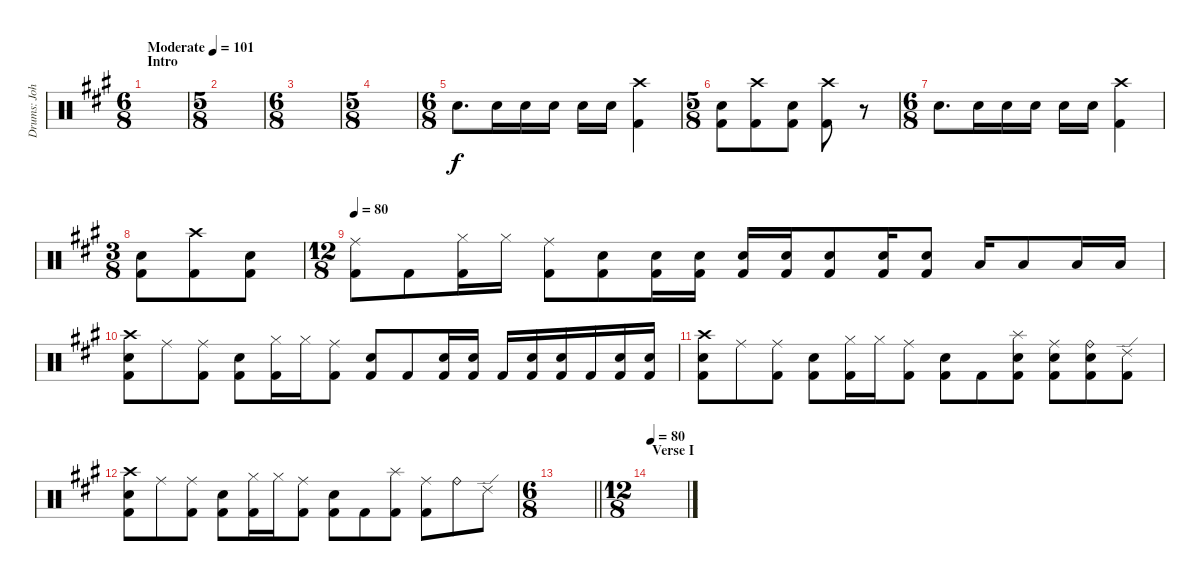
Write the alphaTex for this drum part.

\track ("Drums: John" "Drums: Joh") {instrument percussion}
\staff {score}
\articulation defaults
\ts (6 8)
\section ("" "Intro")
\tempo (101 "Moderate")
\tempo 85
\tempo (101 "Moderate")
\clef neutral
\ks a
|
\ts (5 8)
|
\ts (6 8)
|
\ts (5 8)
|
\ts (6 8)
"Electric Snare (hit)".8{d} "Electric Snare (hit)".16 "Electric Snare (hit)".16 "Electric Snare (hit)".16 "Electric Snare (hit)".16 "Electric Snare (hit)".16 ("Crash high (hit)" "Kick (hit) 2").4 |
\ts (5 8)
("Electric Snare (hit)" "Kick (hit) 2").8 ("Crash high (hit)" "Kick (hit) 2").8 ("Electric Snare (hit)" "Kick (hit) 2").8 ("Crash high (hit)" "Kick (hit) 2").8 r.8 |
\ts (6 8)
"Electric Snare (hit)".8{d} "Electric Snare (hit)".16 "Electric Snare (hit)".16 "Electric Snare (hit)".16 "Electric Snare (hit)".16 "Electric Snare (hit)".16 ("Crash high (hit)" "Kick (hit) 2").4 |
\ts (3 8)
("Electric Snare (hit)" "Kick (hit) 2").8 ("Crash high (hit)" "Kick (hit) 2").8 ("Electric Snare (hit)" "Kick (hit) 2").8 |
\ts (12 8)
\tempo 80
("Ride (middle)" "Kick (hit) 2").8 "Kick (hit) 2".8 ("Hi-Hat (closed)" "Kick (hit) 2").16 "Hi-Hat (closed)".16 ("Ride (middle)" "Kick (hit) 2").8 ("Electric Snare (hit)" "Kick (hit) 2").8 ("Electric Snare (hit)" "Kick (hit) 2").16 ("Electric Snare (hit)" "Kick (hit) 2").16 ("Electric Snare (hit)" "Kick (hit) 2").16 ("Electric Snare (hit)" "Kick (hit) 2").16 ("Electric Snare (hit)" "Kick (hit) 2").8 ("Electric Snare (hit)" "Kick (hit) 2").16 ("Electric Snare (hit)" "Kick (hit) 2").8 "Low Tom (hit)".16 "Low Tom (hit)".8 "Low Tom (hit)".16 "Low Tom (hit)".16 |
("Crash high (hit)" "Electric Snare (hit)" "Kick (hit) 2").8 "Ride (middle)".8 ("Ride (middle)" "Kick (hit) 2").8 ("Electric Snare (hit)" "Kick (hit) 2").8 ("Hi-Hat (closed)" "Kick (hit) 2").16 "Hi-Hat (closed)".16 ("Ride (middle)" "Kick (hit) 2").8 ("Electric Snare (hit)" "Kick (hit) 2").8 "Kick (hit) 2".8 ("Electric Snare (hit)" "Kick (hit) 2").16 ("Electric Snare (hit)" "Kick (hit) 2").16 "Kick (hit) 2".16 ("Electric Snare (hit)" "Kick (hit) 2").16 ("Electric Snare (hit)" "Kick (hit) 2").16 "Kick (hit) 2".16 ("Electric Snare (hit)" "Kick (hit) 2").16 ("Electric Snare (hit)" "Kick (hit) 2").16 |
("Crash high (hit)" "Electric Snare (hit)" "Kick (hit) 2").8 "Ride (middle)".8 ("Ride (middle)" "Kick (hit) 2").8 ("Electric Snare (hit)" "Kick (hit) 2").8 ("Hi-Hat (closed)" "Kick (hit) 2").16 "Hi-Hat (closed)".16 ("Ride (middle)" "Kick (hit) 2").8 ("Electric Snare (hit)" "Kick (hit) 2").8 "Kick (hit) 2".8 ("Splash (hit)" "Electric Snare (hit)" "Kick (hit) 2").8 ("Ride (middle)" "Electric Snare (hit)" "Kick (hit) 2").8 ("Ride (bell)" "Electric Snare (hit)" "Kick (hit) 2").8 ("Ride (edge) 2" "Kick (hit) 2").8 |
("Crash high (hit)" "Electric Snare (hit)" "Kick (hit) 2").8 "Ride (middle)".8 ("Ride (middle)" "Kick (hit) 2").8 ("Electric Snare (hit)" "Kick (hit) 2").8 ("Hi-Hat (closed)" "Kick (hit) 2").16 "Hi-Hat (closed)".16 ("Ride (middle)" "Kick (hit) 2").8 ("Electric Snare (hit)" "Kick (hit) 2").8 "Kick (hit) 2".8 ("Splash (hit)" "Kick (hit) 2").8 ("Ride (middle)" "Kick (hit) 2").8 "Ride (bell)".8 "Ride (edge) 2".8 |
\ts (6 8)
\barLineRight lightlight
|
\ts (12 8)
\section ("" "Verse I")
\tempo 80
